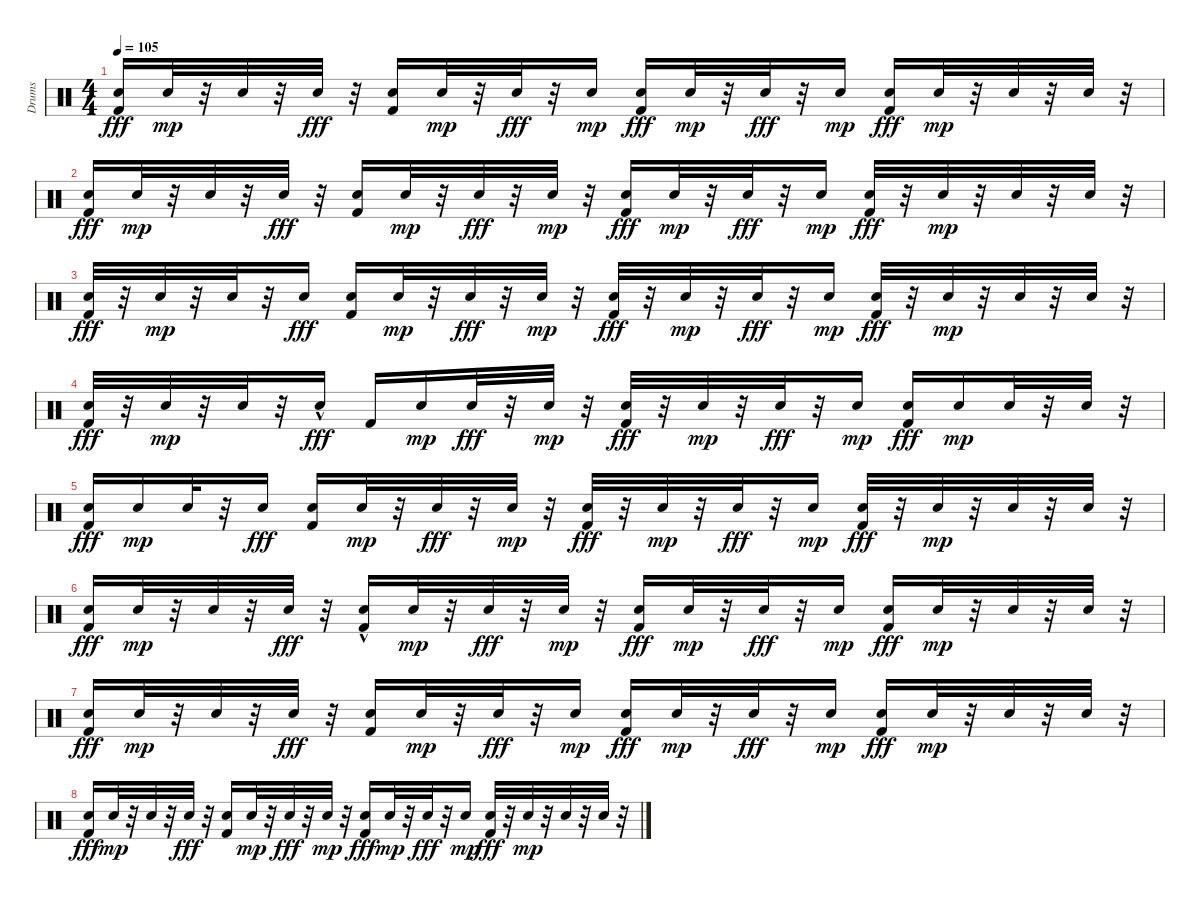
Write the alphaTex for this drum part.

\track ("Drums" "Drums") {instrument percussion}
\staff {score}
\articulation defaults
\ts (4 4)
\tempo 105
\clef neutral
\ks c
("Snare (hit) 2" "Kick (hit) 2").16{dy fff} "Snare (hit) 2".32{dy mp} r.32 "Snare (hit) 2".32 r.32 "Snare (hit) 2".32{dy fff} r.32 ("Snare (hit) 2" "Kick (hit) 2").16 "Snare (hit) 2".32{dy mp} r.32 "Snare (hit) 2".32{dy fff} r.32 "Snare (hit) 2".16{dy mp} ("Snare (hit) 2" "Kick (hit) 2").16{dy fff} "Snare (hit) 2".32{dy mp} r.32 "Snare (hit) 2".32{dy fff} r.32 "Snare (hit) 2".16{dy mp} ("Snare (hit) 2" "Kick (hit) 2").16{dy fff} "Snare (hit) 2".32{dy mp} r.32 "Snare (hit) 2".32 r.32 "Snare (hit) 2".32 r.32 |
("Kick (hit) 2" "Snare (hit) 2").16{dy fff} "Snare (hit) 2".32{dy mp} r.32 "Snare (hit) 2".32 r.32 "Snare (hit) 2".32{dy fff} r.32 ("Snare (hit) 2" "Kick (hit) 2").16 "Snare (hit) 2".32{dy mp} r.32 "Snare (hit) 2".32{dy fff} r.32 "Snare (hit) 2".32{dy mp} r.32 ("Snare (hit) 2" "Kick (hit) 2").16{dy fff} "Snare (hit) 2".32{dy mp} r.32 "Snare (hit) 2".32{dy fff} r.32 "Snare (hit) 2".16{dy mp} ("Kick (hit) 2" "Snare (hit) 2").32{dy fff} r.32 "Snare (hit) 2".32{dy mp} r.32 "Snare (hit) 2".32 r.32 "Snare (hit) 2".32 r.32 |
("Kick (hit) 2" "Snare (hit) 2").32{dy fff} r.32 "Snare (hit) 2".32{dy mp} r.32 "Snare (hit) 2".32 r.32 "Snare (hit) 2".16{dy fff} ("Snare (hit) 2" "Kick (hit) 2").16 "Snare (hit) 2".32{dy mp} r.32 "Snare (hit) 2".32{dy fff} r.32 "Snare (hit) 2".32{dy mp} r.32 ("Snare (hit) 2" "Kick (hit) 2").32{dy fff} r.32 "Snare (hit) 2".32{dy mp} r.32 "Snare (hit) 2".32{dy fff} r.32 "Snare (hit) 2".16{dy mp} ("Kick (hit) 2" "Snare (hit) 2").32{dy fff} r.32 "Snare (hit) 2".32{dy mp} r.32 "Snare (hit) 2".32 r.32 "Snare (hit) 2".32 r.32 |
("Snare (hit) 2" "Kick (hit) 2").32{dy fff} r.32 "Snare (hit) 2".32{dy mp} r.32 "Snare (hit) 2".32 r.32 "Snare (hit) 2"{hac}.16{dy fff} "Kick (hit) 2".16 "Snare (hit) 2".16{dy mp} "Snare (hit) 2".32{dy fff} r.32 "Snare (hit) 2".32{dy mp} r.32 ("Snare (hit) 2" "Kick (hit) 2").32{dy fff} r.32 "Snare (hit) 2".32{dy mp} r.32 "Snare (hit) 2".32{dy fff} r.32 "Snare (hit) 2".16{dy mp} ("Snare (hit) 2" "Kick (hit) 2").16{dy fff} "Snare (hit) 2".16{dy mp} "Snare (hit) 2".32 r.32 "Snare (hit) 2".32 r.32 |
("Snare (hit) 2" "Kick (hit) 2").16{dy fff} "Snare (hit) 2".16{dy mp} "Snare (hit) 2".32 r.32 "Snare (hit) 2".16{dy fff} ("Snare (hit) 2" "Kick (hit) 2").16 "Snare (hit) 2".32{dy mp} r.32 "Snare (hit) 2".32{dy fff} r.32 "Snare (hit) 2".32{dy mp} r.32 ("Snare (hit) 2" "Kick (hit) 2").32{dy fff} r.32 "Snare (hit) 2".32{dy mp} r.32 "Snare (hit) 2".32{dy fff} r.32 "Snare (hit) 2".16{dy mp} ("Snare (hit) 2" "Kick (hit) 2").32{dy fff} r.32 "Snare (hit) 2".32{dy mp} r.32 "Snare (hit) 2".32 r.32 "Snare (hit) 2".32 r.32 |
("Snare (hit) 2" "Kick (hit) 2").16{dy fff} "Snare (hit) 2".32{dy mp} r.32 "Snare (hit) 2".32 r.32 "Snare (hit) 2".32{dy fff} r.32 ("Snare (hit) 2" "Kick (hit) 2"{hac}).16 "Snare (hit) 2".32{dy mp} r.32 "Snare (hit) 2".32{dy fff} r.32 "Snare (hit) 2".32{dy mp} r.32 ("Snare (hit) 2" "Kick (hit) 2").16{dy fff} "Snare (hit) 2".32{dy mp} r.32 "Snare (hit) 2".32{dy fff} r.32 "Snare (hit) 2".16{dy mp} ("Snare (hit) 2" "Kick (hit) 2").16{dy fff} "Snare (hit) 2".32{dy mp} r.32 "Snare (hit) 2".32 r.32 "Snare (hit) 2".32 r.32 |
("Snare (hit) 2" "Kick (hit) 2").16{dy fff} "Snare (hit) 2".32{dy mp} r.32 "Snare (hit) 2".32 r.32 "Snare (hit) 2".32{dy fff} r.32 ("Snare (hit) 2" "Kick (hit) 2").16 "Snare (hit) 2".32{dy mp} r.32 "Snare (hit) 2".32{dy fff} r.32 "Snare (hit) 2".16{dy mp} ("Snare (hit) 2" "Kick (hit) 2").16{dy fff} "Snare (hit) 2".32{dy mp} r.32 "Snare (hit) 2".32{dy fff} r.32 "Snare (hit) 2".16{dy mp} ("Snare (hit) 2" "Kick (hit) 2").16{dy fff} "Snare (hit) 2".32{dy mp} r.32 "Snare (hit) 2".32 r.32 "Snare (hit) 2".32 r.32 |
("Kick (hit) 2" "Snare (hit) 2").16{dy fff} "Snare (hit) 2".32{dy mp} r.32 "Snare (hit) 2".32 r.32 "Snare (hit) 2".32{dy fff} r.32 ("Snare (hit) 2" "Kick (hit) 2").16 "Snare (hit) 2".32{dy mp} r.32 "Snare (hit) 2".32{dy fff} r.32 "Snare (hit) 2".32{dy mp} r.32 ("Snare (hit) 2" "Kick (hit) 2").16{dy fff} "Snare (hit) 2".32{dy mp} r.32 "Snare (hit) 2".32{dy fff} r.32 "Snare (hit) 2".16{dy mp} ("Kick (hit) 2" "Snare (hit) 2").32{dy fff} r.32 "Snare (hit) 2".32{dy mp} r.32 "Snare (hit) 2".32 r.32 "Snare (hit) 2".32 r.32
